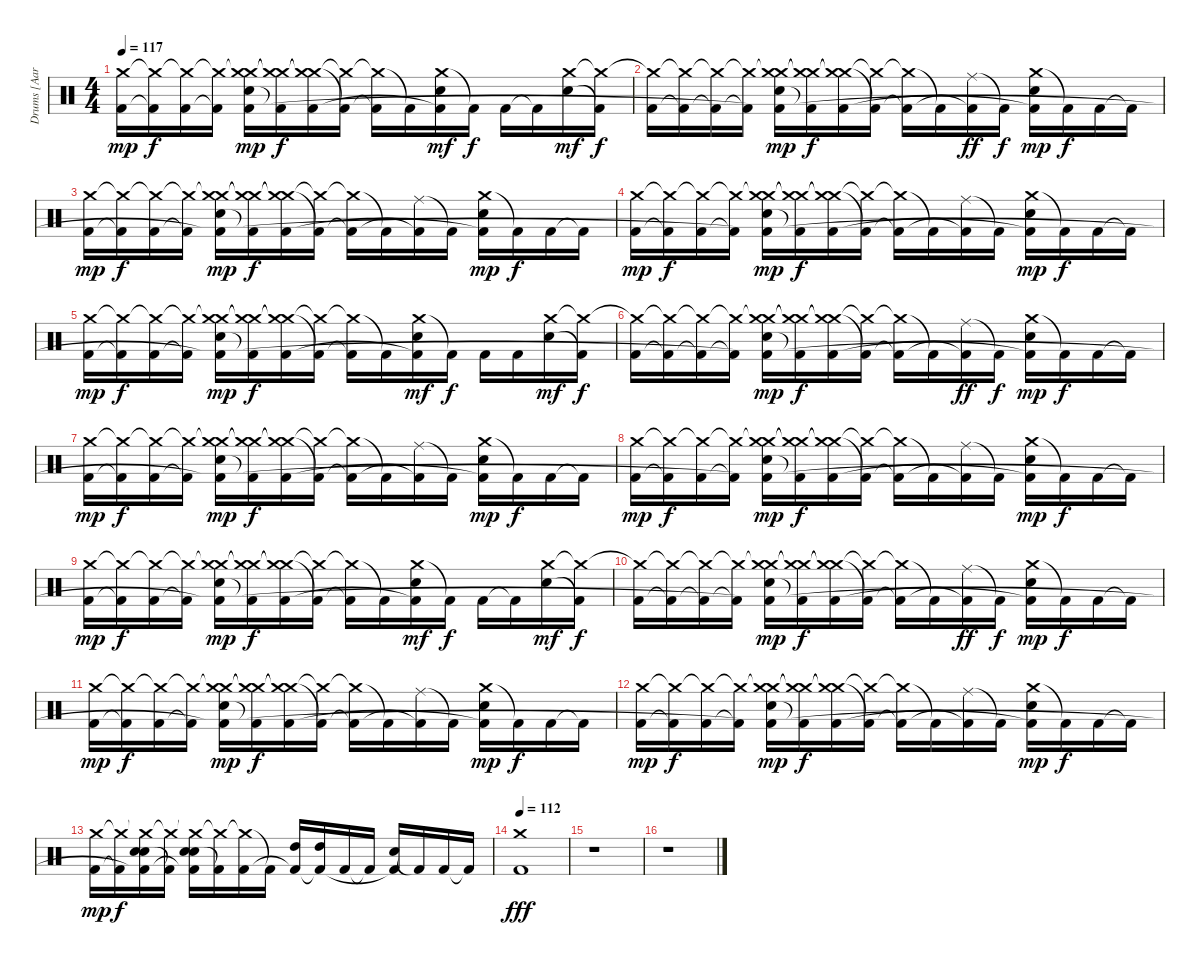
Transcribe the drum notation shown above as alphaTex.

\track ("Drums [Aaron Harris]" "Drums [Aar") {instrument percussion}
\staff {score}
\articulation defaults
\ts (4 4)
\tempo 117
\clef neutral
\ks c
("Crash medium (hit)" "Kick (hit) 2").16{dy mp} ("Crash medium (hit)"{t} "Kick (hit) 2"{t}).16{dy f} ("Crash medium (hit)"{t} "Kick (hit) 2").16 ("Crash medium (hit)"{t} "Kick (hit) 2"{t}).16 ("Crash medium (hit)"{t} "Crash medium (hit)" "Electric Snare (hit)" "Kick (hit) 2"{t}).16{dy mp} ("Crash medium (hit)"{t} "Crash medium (hit)"{t} "Kick (hit) 2"{t}).16{dy f} ("Crash medium (hit)"{t} "Crash medium (hit)"{t} "Kick (hit) 2").16 ("Crash medium (hit)"{t} "Kick (hit) 2"{t}).16 ("Crash medium (hit)"{t} "Kick (hit) 2"{t}).16 "Kick (hit) 2"{t}.16 ("Crash medium (hit)" "Electric Snare (hit)" "Kick (hit) 2"{t}).16{dy mf} "Kick (hit) 2"{t}.16{dy f} "Kick (hit) 2".16 "Kick (hit) 2"{t}.16 ("Crash medium (hit)" "Electric Snare (hit)").16{dy mf} ("Crash medium (hit)"{t} "Kick (hit) 2"{t}).16{dy f} |
("Crash medium (hit)"{t} "Kick (hit) 2").16 ("Crash medium (hit)"{t} "Kick (hit) 2"{t}).16 ("Crash medium (hit)"{t} "Kick (hit) 2"{t}).16 ("Crash medium (hit)"{t} "Kick (hit) 2"{t}).16 ("Crash medium (hit)"{t} "Crash medium (hit)" "Electric Snare (hit)" "Kick (hit) 2"{t}).16{dy mp} ("Crash medium (hit)"{t} "Crash medium (hit)"{t} "Kick (hit) 2"{t}).16{dy f} ("Crash medium (hit)"{t} "Crash medium (hit)"{t} "Kick (hit) 2").16 ("Crash medium (hit)"{t} "Kick (hit) 2"{t}).16 ("Crash medium (hit)"{t} "Kick (hit) 2"{t}).16 "Kick (hit) 2"{t}.16 ("Ride (middle)" "Kick (hit) 2"{t}).16{dy ff} "Kick (hit) 2"{t}.16{dy f} ("Crash medium (hit)" "Electric Snare (hit)" "Kick (hit) 2"{t}).16{dy mp} "Kick (hit) 2"{t}.16{dy f} "Kick (hit) 2".16 "Kick (hit) 2"{t}.16 |
("Crash medium (hit)" "Kick (hit) 2").16{dy mp} ("Crash medium (hit)"{t} "Kick (hit) 2"{t}).16{dy f} ("Crash medium (hit)"{t} "Kick (hit) 2").16 ("Crash medium (hit)"{t} "Kick (hit) 2"{t}).16 ("Crash medium (hit)"{t} "Crash medium (hit)" "Electric Snare (hit)" "Kick (hit) 2"{t}).16{dy mp} ("Crash medium (hit)"{t} "Crash medium (hit)"{t} "Kick (hit) 2"{t}).16{dy f} ("Crash medium (hit)"{t} "Crash medium (hit)"{t} "Kick (hit) 2").16 ("Crash medium (hit)"{t} "Kick (hit) 2"{t}).16 ("Crash medium (hit)"{t} "Kick (hit) 2"{t}).16 "Kick (hit) 2"{t}.16 ("Ride (middle)" "Kick (hit) 2"{t}).16 "Kick (hit) 2"{t}.16 ("Crash medium (hit)" "Electric Snare (hit)" "Kick (hit) 2"{t}).16{dy mp} "Kick (hit) 2"{t}.16{dy f} "Kick (hit) 2".16 "Kick (hit) 2"{t}.16 |
("Crash medium (hit)" "Kick (hit) 2").16{dy mp} ("Crash medium (hit)"{t} "Kick (hit) 2"{t}).16{dy f} ("Crash medium (hit)"{t} "Kick (hit) 2").16 ("Crash medium (hit)"{t} "Kick (hit) 2"{t}).16 ("Crash medium (hit)"{t} "Crash medium (hit)" "Electric Snare (hit)" "Kick (hit) 2"{t}).16{dy mp} ("Crash medium (hit)"{t} "Crash medium (hit)"{t} "Kick (hit) 2"{t}).16{dy f} ("Crash medium (hit)"{t} "Crash medium (hit)"{t} "Kick (hit) 2").16 ("Crash medium (hit)"{t} "Kick (hit) 2"{t}).16 ("Crash medium (hit)"{t} "Kick (hit) 2"{t}).16 "Kick (hit) 2"{t}.16 ("Ride (middle)" "Kick (hit) 2"{t}).16 "Kick (hit) 2"{t}.16 ("Crash medium (hit)" "Electric Snare (hit)" "Kick (hit) 2"{t}).16{dy mp} "Kick (hit) 2"{t}.16{dy f} "Kick (hit) 2".16 "Kick (hit) 2"{t}.16 |
("Crash medium (hit)" "Kick (hit) 2").16{dy mp} ("Crash medium (hit)"{t} "Kick (hit) 2"{t}).16{dy f} ("Crash medium (hit)"{t} "Kick (hit) 2").16 ("Crash medium (hit)"{t} "Kick (hit) 2"{t}).16 ("Crash medium (hit)"{t} "Crash medium (hit)" "Electric Snare (hit)" "Kick (hit) 2"{t}).16{dy mp} ("Crash medium (hit)"{t} "Crash medium (hit)"{t} "Kick (hit) 2"{t}).16{dy f} ("Crash medium (hit)"{t} "Crash medium (hit)"{t} "Kick (hit) 2").16 ("Crash medium (hit)"{t} "Kick (hit) 2"{t}).16 ("Crash medium (hit)"{t} "Kick (hit) 2"{t}).16 "Kick (hit) 2"{t}.16 ("Crash medium (hit)" "Electric Snare (hit)" "Kick (hit) 2"{t}).16{dy mf} "Kick (hit) 2"{t}.16{dy f} "Kick (hit) 2".16 "Kick (hit) 2".16 ("Crash medium (hit)" "Electric Snare (hit)").16{dy mf} ("Crash medium (hit)"{t} "Kick (hit) 2"{t}).16{dy f} |
("Crash medium (hit)"{t} "Kick (hit) 2").16 ("Crash medium (hit)"{t} "Kick (hit) 2"{t}).16 ("Crash medium (hit)"{t} "Kick (hit) 2"{t}).16 ("Crash medium (hit)"{t} "Kick (hit) 2"{t}).16 ("Crash medium (hit)"{t} "Crash medium (hit)" "Electric Snare (hit)" "Kick (hit) 2"{t}).16{dy mp} ("Crash medium (hit)"{t} "Crash medium (hit)"{t} "Kick (hit) 2"{t}).16{dy f} ("Crash medium (hit)"{t} "Crash medium (hit)"{t} "Kick (hit) 2").16 ("Crash medium (hit)"{t} "Kick (hit) 2"{t}).16 ("Crash medium (hit)"{t} "Kick (hit) 2"{t}).16 "Kick (hit) 2"{t}.16 ("Ride (middle)" "Kick (hit) 2"{t}).16{dy ff} "Kick (hit) 2"{t}.16{dy f} ("Crash medium (hit)" "Electric Snare (hit)" "Kick (hit) 2"{t}).16{dy mp} "Kick (hit) 2"{t}.16{dy f} "Kick (hit) 2".16 "Kick (hit) 2"{t}.16 |
("Crash medium (hit)" "Kick (hit) 2").16{dy mp} ("Crash medium (hit)"{t} "Kick (hit) 2"{t}).16{dy f} ("Crash medium (hit)"{t} "Kick (hit) 2").16 ("Crash medium (hit)"{t} "Kick (hit) 2"{t}).16 ("Crash medium (hit)"{t} "Crash medium (hit)" "Electric Snare (hit)" "Kick (hit) 2"{t}).16{dy mp} ("Crash medium (hit)"{t} "Crash medium (hit)"{t} "Kick (hit) 2"{t}).16{dy f} ("Crash medium (hit)"{t} "Crash medium (hit)"{t} "Kick (hit) 2").16 ("Crash medium (hit)"{t} "Kick (hit) 2"{t}).16 ("Crash medium (hit)"{t} "Kick (hit) 2"{t}).16 "Kick (hit) 2"{t}.16 ("Ride (middle)" "Kick (hit) 2"{t}).16 "Kick (hit) 2"{t}.16 ("Crash medium (hit)" "Electric Snare (hit)" "Kick (hit) 2"{t}).16{dy mp} "Kick (hit) 2"{t}.16{dy f} "Kick (hit) 2".16 "Kick (hit) 2"{t}.16 |
("Crash medium (hit)" "Kick (hit) 2").16{dy mp} ("Crash medium (hit)"{t} "Kick (hit) 2"{t}).16{dy f} ("Crash medium (hit)"{t} "Kick (hit) 2").16 ("Crash medium (hit)"{t} "Kick (hit) 2"{t}).16 ("Crash medium (hit)"{t} "Crash medium (hit)" "Electric Snare (hit)" "Kick (hit) 2"{t}).16{dy mp} ("Crash medium (hit)"{t} "Crash medium (hit)"{t} "Kick (hit) 2"{t}).16{dy f} ("Crash medium (hit)"{t} "Crash medium (hit)"{t} "Kick (hit) 2").16 ("Crash medium (hit)"{t} "Kick (hit) 2"{t}).16 ("Crash medium (hit)"{t} "Kick (hit) 2"{t}).16 "Kick (hit) 2"{t}.16 ("Ride (middle)" "Kick (hit) 2"{t}).16 "Kick (hit) 2"{t}.16 ("Crash medium (hit)" "Electric Snare (hit)" "Kick (hit) 2"{t}).16{dy mp} "Kick (hit) 2"{t}.16{dy f} "Kick (hit) 2".16 "Kick (hit) 2"{t}.16 |
("Crash medium (hit)" "Kick (hit) 2").16{dy mp} ("Crash medium (hit)"{t} "Kick (hit) 2"{t}).16{dy f} ("Crash medium (hit)"{t} "Kick (hit) 2").16 ("Crash medium (hit)"{t} "Kick (hit) 2"{t}).16 ("Crash medium (hit)"{t} "Crash medium (hit)" "Electric Snare (hit)" "Kick (hit) 2"{t}).16{dy mp} ("Crash medium (hit)"{t} "Crash medium (hit)"{t} "Kick (hit) 2"{t}).16{dy f} ("Crash medium (hit)"{t} "Crash medium (hit)"{t} "Kick (hit) 2").16 ("Crash medium (hit)"{t} "Kick (hit) 2"{t}).16 ("Crash medium (hit)"{t} "Kick (hit) 2"{t}).16 "Kick (hit) 2"{t}.16 ("Crash medium (hit)" "Electric Snare (hit)" "Kick (hit) 2"{t}).16{dy mf} "Kick (hit) 2"{t}.16{dy f} "Kick (hit) 2".16 "Kick (hit) 2"{t}.16 ("Crash medium (hit)" "Electric Snare (hit)").16{dy mf} ("Crash medium (hit)"{t} "Kick (hit) 2"{t}).16{dy f} |
("Crash medium (hit)"{t} "Kick (hit) 2").16 ("Crash medium (hit)"{t} "Kick (hit) 2"{t}).16 ("Crash medium (hit)"{t} "Kick (hit) 2"{t}).16 ("Crash medium (hit)"{t} "Kick (hit) 2"{t}).16 ("Crash medium (hit)"{t} "Crash medium (hit)" "Electric Snare (hit)" "Kick (hit) 2"{t}).16{dy mp} ("Crash medium (hit)"{t} "Crash medium (hit)"{t} "Kick (hit) 2"{t}).16{dy f} ("Crash medium (hit)"{t} "Crash medium (hit)"{t} "Kick (hit) 2").16 ("Crash medium (hit)"{t} "Kick (hit) 2"{t}).16 ("Crash medium (hit)"{t} "Kick (hit) 2"{t}).16 "Kick (hit) 2"{t}.16 ("Ride (middle)" "Kick (hit) 2"{t}).16{dy ff} "Kick (hit) 2"{t}.16{dy f} ("Crash medium (hit)" "Electric Snare (hit)" "Kick (hit) 2"{t}).16{dy mp} "Kick (hit) 2"{t}.16{dy f} "Kick (hit) 2".16 "Kick (hit) 2"{t}.16 |
("Crash medium (hit)" "Kick (hit) 2").16{dy mp} ("Crash medium (hit)"{t} "Kick (hit) 2"{t}).16{dy f} ("Crash medium (hit)"{t} "Kick (hit) 2").16 ("Crash medium (hit)"{t} "Kick (hit) 2"{t}).16 ("Crash medium (hit)"{t} "Crash medium (hit)" "Electric Snare (hit)" "Kick (hit) 2"{t}).16{dy mp} ("Crash medium (hit)"{t} "Crash medium (hit)"{t} "Kick (hit) 2"{t}).16{dy f} ("Crash medium (hit)"{t} "Crash medium (hit)"{t} "Kick (hit) 2").16 ("Crash medium (hit)"{t} "Kick (hit) 2"{t}).16 ("Crash medium (hit)"{t} "Kick (hit) 2"{t}).16 "Kick (hit) 2"{t}.16 ("Ride (middle)" "Kick (hit) 2"{t}).16 "Kick (hit) 2"{t}.16 ("Crash medium (hit)" "Electric Snare (hit)" "Kick (hit) 2"{t}).16{dy mp} "Kick (hit) 2"{t}.16{dy f} "Kick (hit) 2".16 "Kick (hit) 2"{t}.16 |
("Crash medium (hit)" "Kick (hit) 2").16{dy mp} ("Crash medium (hit)"{t} "Kick (hit) 2"{t}).16{dy f} ("Crash medium (hit)"{t} "Kick (hit) 2").16 ("Crash medium (hit)"{t} "Kick (hit) 2"{t}).16 ("Crash medium (hit)"{t} "Crash medium (hit)" "Electric Snare (hit)" "Kick (hit) 2"{t}).16{dy mp} ("Crash medium (hit)"{t} "Crash medium (hit)"{t} "Kick (hit) 2"{t}).16{dy f} ("Crash medium (hit)"{t} "Crash medium (hit)"{t} "Kick (hit) 2").16 ("Crash medium (hit)"{t} "Kick (hit) 2"{t}).16 ("Crash medium (hit)"{t} "Kick (hit) 2"{t}).16 "Kick (hit) 2"{t}.16 ("Ride (middle)" "Kick (hit) 2"{t}).16 "Kick (hit) 2"{t}.16 ("Crash medium (hit)" "Electric Snare (hit)" "Kick (hit) 2"{t}).16{dy mp} "Kick (hit) 2"{t}.16{dy f} "Kick (hit) 2".16 "Kick (hit) 2"{t}.16 |
("Crash medium (hit)" "Kick (hit) 2").16{dy mp} ("Crash medium (hit)"{t} "Kick (hit) 2"{t}).16{dy f} ("Crash medium (hit)"{t} "Electric Snare (hit)" "Electric Snare (hit)" "Kick (hit) 2"{t}).16 ("Crash medium (hit)"{t} "Kick (hit) 2"{t}).16 ("Crash medium (hit)"{t} "Electric Snare (hit)" "Electric Snare (hit)" "Kick (hit) 2"{t}).16 ("Crash medium (hit)"{t} "Kick (hit) 2"{t}).16 ("Crash medium (hit)"{t} "Kick (hit) 2").16 "Kick (hit) 2"{t}.16 ("High Tom (hit)" "Kick (hit) 2"{t}).16 ("High Tom (hit)" "Kick (hit) 2"{t}).16 "Kick (hit) 2".16 "Kick (hit) 2"{t}.16 ("Electric Snare (hit)" "Kick (hit) 2"{t}).16 "Kick (hit) 2"{t}.16 "Kick (hit) 2".16 "Kick (hit) 2"{t}.16 |
\tempo 112
("Crash medium (hit)" "Kick (hit) 2").1{dy fff} |
r.1 |
r.1
